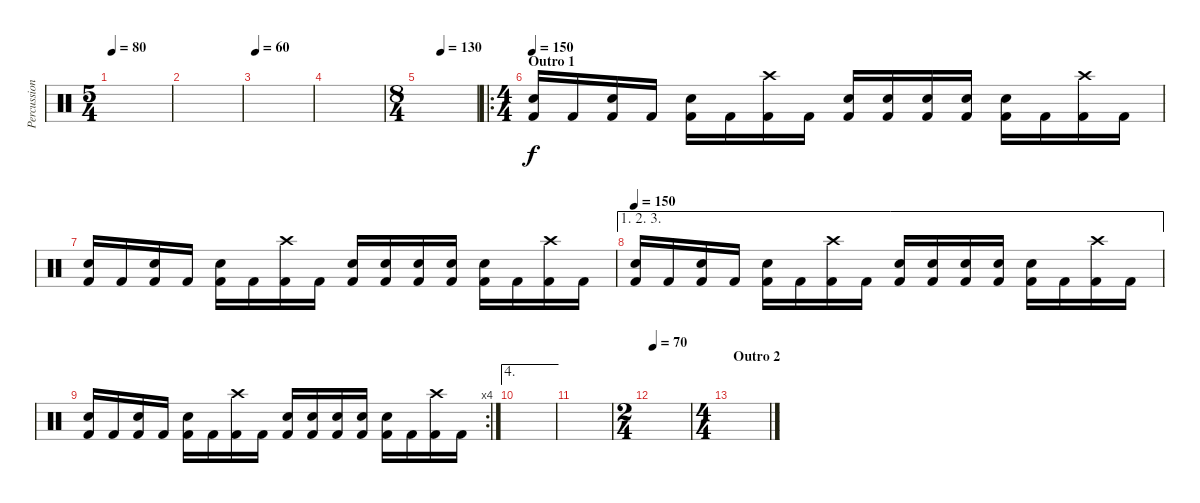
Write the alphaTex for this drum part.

\track ("Percussion" "Percussion") {instrument percussion}
\staff {score}
\articulation defaults
\ts (5 4)
\tempo 80
\clef neutral
\ks c
|
|
\tempo 60
|
|
\ts (8 4)
\tempo (130 0.375)
|
\ro
\ts (4 4)
\section ("" "Outro 1")
\tempo 150
("Electric Snare (hit)" "Kick (hit) 2").16 "Kick (hit) 2".16 ("Electric Snare (hit)" "Kick (hit) 2").16 "Kick (hit) 2".16 ("Electric Snare (hit)" "Kick (hit) 2").16 "Kick (hit) 2".16 ("Crash high (hit)" "Kick (hit) 2").16 "Kick (hit) 2".16 ("Electric Snare (hit)" "Kick (hit) 2").16 ("Electric Snare (hit)" "Kick (hit) 2").16 ("Electric Snare (hit)" "Kick (hit) 2").16 ("Electric Snare (hit)" "Kick (hit) 2").16 ("Electric Snare (hit)" "Kick (hit) 2").16 "Kick (hit) 2".16 ("Crash high (hit)" "Kick (hit) 2").16 "Kick (hit) 2".16 |
("Electric Snare (hit)" "Kick (hit) 2").16 "Kick (hit) 2".16 ("Electric Snare (hit)" "Kick (hit) 2").16 "Kick (hit) 2".16 ("Electric Snare (hit)" "Kick (hit) 2").16 "Kick (hit) 2".16 ("Crash high (hit)" "Kick (hit) 2").16 "Kick (hit) 2".16 ("Electric Snare (hit)" "Kick (hit) 2").16 ("Electric Snare (hit)" "Kick (hit) 2").16 ("Electric Snare (hit)" "Kick (hit) 2").16 ("Electric Snare (hit)" "Kick (hit) 2").16 ("Electric Snare (hit)" "Kick (hit) 2").16 "Kick (hit) 2".16 ("Crash high (hit)" "Kick (hit) 2").16 "Kick (hit) 2".16 |
\ae (1 2 3)
\tempo 150
("Electric Snare (hit)" "Kick (hit) 2").16 "Kick (hit) 2".16 ("Electric Snare (hit)" "Kick (hit) 2").16 "Kick (hit) 2".16 ("Electric Snare (hit)" "Kick (hit) 2").16 "Kick (hit) 2".16 ("Crash high (hit)" "Kick (hit) 2").16 "Kick (hit) 2".16 ("Electric Snare (hit)" "Kick (hit) 2").16 ("Electric Snare (hit)" "Kick (hit) 2").16 ("Electric Snare (hit)" "Kick (hit) 2").16 ("Electric Snare (hit)" "Kick (hit) 2").16 ("Electric Snare (hit)" "Kick (hit) 2").16 "Kick (hit) 2".16 ("Crash high (hit)" "Kick (hit) 2").16 "Kick (hit) 2".16 |
\rc 4
("Electric Snare (hit)" "Kick (hit) 2").16 "Kick (hit) 2".16 ("Electric Snare (hit)" "Kick (hit) 2").16 "Kick (hit) 2".16 ("Electric Snare (hit)" "Kick (hit) 2").16 "Kick (hit) 2".16 ("Crash high (hit)" "Kick (hit) 2").16 "Kick (hit) 2".16 ("Electric Snare (hit)" "Kick (hit) 2").16 ("Electric Snare (hit)" "Kick (hit) 2").16 ("Electric Snare (hit)" "Kick (hit) 2").16 ("Electric Snare (hit)" "Kick (hit) 2").16 ("Electric Snare (hit)" "Kick (hit) 2").16 "Kick (hit) 2".16 ("Crash high (hit)" "Kick (hit) 2").16 "Kick (hit) 2".16 |
\ae 4
|
|
\ts (2 4)
\tempo 70
|
\ts (4 4)
\section ("" "Outro 2")
